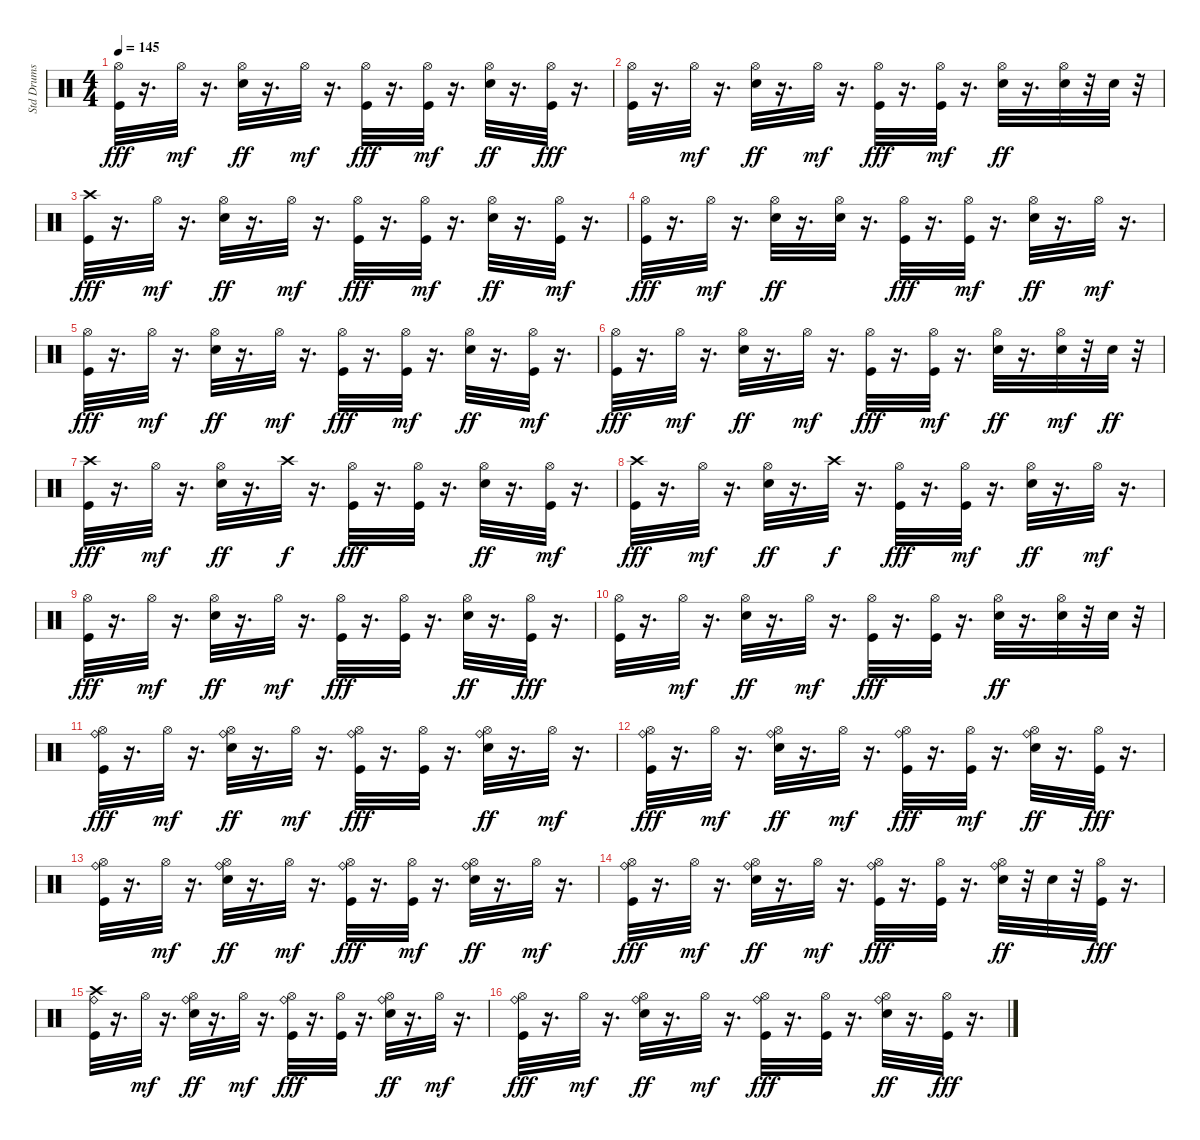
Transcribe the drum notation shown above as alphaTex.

\track ("Std Drums" "Std Drums") {instrument percussion}
\staff {score}
\articulation defaults
\ts (4 4)
\tempo 145
\clef neutral
\ks c
("Hi-Hat (open)" "Kick (hit)").32{dy fff} r.16{d} "Hi-Hat (open)".32{dy mf} r.16{d} ("Hi-Hat (open)" "Snare (hit) 2").32{dy ff} r.16{d} "Hi-Hat (open)".32{dy mf} r.16{d} ("Hi-Hat (open)" "Kick (hit)").32{dy fff} r.16{d} ("Kick (hit)" "Hi-Hat (open)").32{dy mf} r.16{d} ("Snare (hit) 2" "Hi-Hat (open)").32{dy ff} r.16{d} ("Hi-Hat (open)" "Kick (hit)").32{dy fff} r.16{d} |
("Hi-Hat (open)" "Kick (hit)").32 r.16{d} "Hi-Hat (open)".32{dy mf} r.16{d} ("Snare (hit) 2" "Hi-Hat (open)").32{dy ff} r.16{d} "Hi-Hat (open)".32{dy mf} r.16{d} ("Hi-Hat (open)" "Kick (hit)").32{dy fff} r.16{d} ("Kick (hit)" "Hi-Hat (open)").32{dy mf} r.16{d} ("Hi-Hat (open)" "Snare (hit) 2").32{dy ff} r.16{d} ("Hi-Hat (open)" "Snare (hit) 2").32 r.32 "Snare (hit) 2".32 r.32 |
("Crash high (hit)" "Kick (hit)").32{dy fff} r.16{d} "Hi-Hat (open)".32{dy mf} r.16{d} ("Snare (hit) 2" "Hi-Hat (open)").32{dy ff} r.16{d} "Hi-Hat (open)".32{dy mf} r.16{d} ("Kick (hit)" "Hi-Hat (open)").32{dy fff} r.16{d} ("Kick (hit)" "Hi-Hat (open)").32{dy mf} r.16{d} ("Hi-Hat (open)" "Snare (hit) 2").32{dy ff} r.16{d} ("Kick (hit)" "Hi-Hat (open)").32{dy mf} r.16{d} |
("Hi-Hat (open)" "Kick (hit)").32{dy fff} r.16{d} "Hi-Hat (open)".32{dy mf} r.16{d} ("Snare (hit) 2" "Hi-Hat (open)").32{dy ff} r.16{d} ("Hi-Hat (open)" "Snare (hit) 2").32 r.16{d} ("Hi-Hat (open)" "Kick (hit)").32{dy fff} r.16{d} ("Kick (hit)" "Hi-Hat (open)").32{dy mf} r.16{d} ("Snare (hit) 2" "Hi-Hat (open)").32{dy ff} r.16{d} "Hi-Hat (open)".32{dy mf} r.16{d} |
("Hi-Hat (open)" "Kick (hit)").32{dy fff} r.16{d} "Hi-Hat (open)".32{dy mf} r.16{d} ("Hi-Hat (open)" "Snare (hit) 2").32{dy ff} r.16{d} "Hi-Hat (open)".32{dy mf} r.16{d} ("Hi-Hat (open)" "Kick (hit)").32{dy fff} r.16{d} ("Kick (hit)" "Hi-Hat (open)").32{dy mf} r.16{d} ("Hi-Hat (open)" "Snare (hit) 2").32{dy ff} r.16{d} ("Kick (hit)" "Hi-Hat (open)").32{dy mf} r.16{d} |
("Hi-Hat (open)" "Kick (hit)").32{dy fff} r.16{d} "Hi-Hat (open)".32{dy mf} r.16{d} ("Hi-Hat (open)" "Snare (hit) 2").32{dy ff} r.16{d} "Hi-Hat (open)".32{dy mf} r.16{d} ("Hi-Hat (open)" "Kick (hit)").32{dy fff} r.16{d} ("Kick (hit)" "Hi-Hat (open)").32{dy mf} r.16{d} ("Hi-Hat (open)" "Snare (hit) 2").32{dy ff} r.16{d} ("Snare (hit) 2" "Hi-Hat (open)").32{dy mf} r.32 "Snare (hit) 2".32{dy ff} r.32 |
("Kick (hit)" "Crash high (hit)").32{dy fff} r.16{d} "Hi-Hat (open)".32{dy mf} r.16{d} ("Snare (hit) 2" "Hi-Hat (open)").32{dy ff} r.16{d} "Crash high (hit)".32{dy f} r.16{d} ("Hi-Hat (open)" "Kick (hit)").32{dy fff} r.16{d} ("Hi-Hat (open)" "Kick (hit)").32 r.16{d} ("Snare (hit) 2" "Hi-Hat (open)").32{dy ff} r.16{d} ("Kick (hit)" "Hi-Hat (open)").32{dy mf} r.16{d} |
("Kick (hit)" "Crash high (hit)").32{dy fff} r.16{d} "Hi-Hat (open)".32{dy mf} r.16{d} ("Snare (hit) 2" "Hi-Hat (open)").32{dy ff} r.16{d} "Crash high (hit)".32{dy f} r.16{d} ("Hi-Hat (open)" "Kick (hit)").32{dy fff} r.16{d} ("Kick (hit)" "Hi-Hat (open)").32{dy mf} r.16{d} ("Hi-Hat (open)" "Snare (hit) 2").32{dy ff} r.16{d} "Hi-Hat (open)".32{dy mf} r.16{d} |
("Hi-Hat (open)" "Kick (hit)").32{dy fff} r.16{d} "Hi-Hat (open)".32{dy mf} r.16{d} ("Hi-Hat (open)" "Snare (hit) 2").32{dy ff} r.16{d} "Hi-Hat (open)".32{dy mf} r.16{d} ("Hi-Hat (open)" "Kick (hit)").32{dy fff} r.16{d} ("Hi-Hat (open)" "Kick (hit)").32 r.16{d} ("Hi-Hat (open)" "Snare (hit) 2").32{dy ff} r.16{d} ("Hi-Hat (open)" "Kick (hit)").32{dy fff} r.16{d} |
("Kick (hit)" "Hi-Hat (open)").32 r.16{d} "Hi-Hat (open)".32{dy mf} r.16{d} ("Hi-Hat (open)" "Snare (hit) 2").32{dy ff} r.16{d} "Hi-Hat (open)".32{dy mf} r.16{d} ("Kick (hit)" "Hi-Hat (open)").32{dy fff} r.16{d} ("Hi-Hat (open)" "Kick (hit)").32 r.16{d} ("Hi-Hat (open)" "Snare (hit) 2").32{dy ff} r.16{d} ("Hi-Hat (open)" "Snare (hit) 2").32 r.32 "Snare (hit) 2".32 r.32 |
("Kick (hit)" "Hi-Hat (open)" "Ride (bell)").32{dy fff} r.16{d} "Hi-Hat (open)".32{dy mf} r.16{d} ("Ride (bell)" "Snare (hit) 2" "Hi-Hat (open)").32{dy ff} r.16{d} "Hi-Hat (open)".32{dy mf} r.16{d} ("Hi-Hat (open)" "Ride (bell)" "Kick (hit)").32{dy fff} r.16{d} ("Hi-Hat (open)" "Kick (hit)").32 r.16{d} ("Hi-Hat (open)" "Snare (hit) 2" "Ride (bell)").32{dy ff} r.16{d} "Hi-Hat (open)".32{dy mf} r.16{d} |
("Hi-Hat (open)" "Ride (bell)" "Kick (hit)").32{dy fff} r.16{d} "Hi-Hat (open)".32{dy mf} r.16{d} ("Hi-Hat (open)" "Snare (hit) 2" "Ride (bell)").32{dy ff} r.16{d} "Hi-Hat (open)".32{dy mf} r.16{d} ("Kick (hit)" "Ride (bell)" "Hi-Hat (open)").32{dy fff} r.16{d} ("Kick (hit)" "Hi-Hat (open)").32{dy mf} r.16{d} ("Hi-Hat (open)" "Ride (bell)" "Snare (hit) 2").32{dy ff} r.16{d} ("Hi-Hat (open)" "Kick (hit)").32{dy fff} r.16{d} |
("Kick (hit)" "Ride (bell)" "Hi-Hat (open)").32 r.16{d} "Hi-Hat (open)".32{dy mf} r.16{d} ("Snare (hit) 2" "Ride (bell)" "Hi-Hat (open)").32{dy ff} r.16{d} "Hi-Hat (open)".32{dy mf} r.16{d} ("Kick (hit)" "Ride (bell)" "Hi-Hat (open)").32{dy fff} r.16{d} ("Kick (hit)" "Hi-Hat (open)").32{dy mf} r.16{d} ("Hi-Hat (open)" "Snare (hit) 2" "Ride (bell)").32{dy ff} r.16{d} "Hi-Hat (open)".32{dy mf} r.16{d} |
("Ride (bell)" "Hi-Hat (open)" "Kick (hit)").32{dy fff} r.16{d} "Hi-Hat (open)".32{dy mf} r.16{d} ("Hi-Hat (open)" "Snare (hit) 2" "Ride (bell)").32{dy ff} r.16{d} "Hi-Hat (open)".32{dy mf} r.16{d} ("Hi-Hat (open)" "Kick (hit)" "Ride (bell)").32{dy fff} r.16{d} ("Hi-Hat (open)" "Kick (hit)").32 r.16{d} ("Hi-Hat (open)" "Snare (hit) 2" "Ride (bell)").32{dy ff} r.32 "Snare (hit) 2".32 r.32 ("Hi-Hat (open)" "Kick (hit)").32{dy fff} r.16{d} |
("Crash high (hit)" "Kick (hit)" "Ride (bell)").32 r.16{d} "Hi-Hat (open)".32{dy mf} r.16{d} ("Hi-Hat (open)" "Snare (hit) 2" "Ride (bell)").32{dy ff} r.16{d} "Hi-Hat (open)".32{dy mf} r.16{d} ("Hi-Hat (open)" "Ride (bell)" "Kick (hit)").32{dy fff} r.16{d} ("Hi-Hat (open)" "Kick (hit)").32 r.16{d} ("Hi-Hat (open)" "Ride (bell)" "Snare (hit) 2").32{dy ff} r.16{d} "Hi-Hat (open)".32{dy mf} r.16{d} |
("Kick (hit)" "Hi-Hat (open)" "Ride (bell)").32{dy fff} r.16{d} "Hi-Hat (open)".32{dy mf} r.16{d} ("Hi-Hat (open)" "Ride (bell)" "Snare (hit) 2").32{dy ff} r.16{d} "Hi-Hat (open)".32{dy mf} r.16{d} ("Hi-Hat (open)" "Ride (bell)" "Kick (hit)").32{dy fff} r.16{d} ("Hi-Hat (open)" "Kick (hit)").32 r.16{d} ("Snare (hit) 2" "Hi-Hat (open)" "Ride (bell)").32{dy ff} r.16{d} ("Hi-Hat (open)" "Kick (hit)").32{dy fff} r.16{d}
